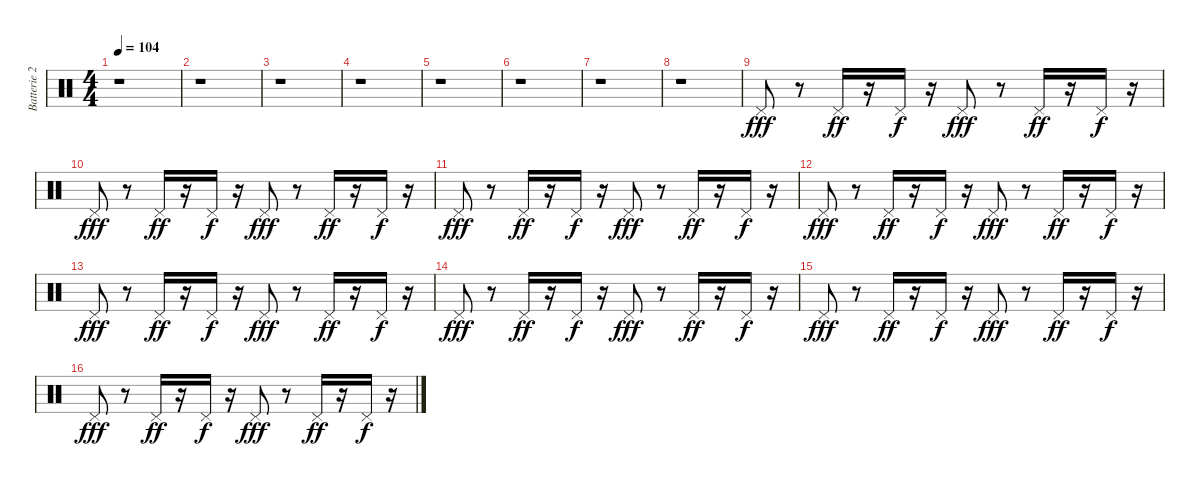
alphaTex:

\track ("Batterie 2" "Batterie 2") {instrument percussion}
\staff {score}
\articulation defaults
\ts (4 4)
\tempo 104
\clef neutral
\ks c
r.1{dy fff} |
r.1 |
r.1 |
r.1 |
r.1 |
r.1 |
r.1 |
r.1 |
"Pedal Hi-Hat (hit)".8 r.8 "Pedal Hi-Hat (hit)".16{dy ff} r.16 "Pedal Hi-Hat (hit)".16{dy f} r.16 "Pedal Hi-Hat (hit)".8{dy fff} r.8 "Pedal Hi-Hat (hit)".16{dy ff} r.16 "Pedal Hi-Hat (hit)".16{dy f} r.16 |
"Pedal Hi-Hat (hit)".8{dy fff} r.8 "Pedal Hi-Hat (hit)".16{dy ff} r.16 "Pedal Hi-Hat (hit)".16{dy f} r.16 "Pedal Hi-Hat (hit)".8{dy fff} r.8 "Pedal Hi-Hat (hit)".16{dy ff} r.16 "Pedal Hi-Hat (hit)".16{dy f} r.16 |
"Pedal Hi-Hat (hit)".8{dy fff} r.8 "Pedal Hi-Hat (hit)".16{dy ff} r.16 "Pedal Hi-Hat (hit)".16{dy f} r.16 "Pedal Hi-Hat (hit)".8{dy fff} r.8 "Pedal Hi-Hat (hit)".16{dy ff} r.16 "Pedal Hi-Hat (hit)".16{dy f} r.16 |
"Pedal Hi-Hat (hit)".8{dy fff} r.8 "Pedal Hi-Hat (hit)".16{dy ff} r.16 "Pedal Hi-Hat (hit)".16{dy f} r.16 "Pedal Hi-Hat (hit)".8{dy fff} r.8 "Pedal Hi-Hat (hit)".16{dy ff} r.16 "Pedal Hi-Hat (hit)".16{dy f} r.16 |
"Pedal Hi-Hat (hit)".8{dy fff} r.8 "Pedal Hi-Hat (hit)".16{dy ff} r.16 "Pedal Hi-Hat (hit)".16{dy f} r.16 "Pedal Hi-Hat (hit)".8{dy fff} r.8 "Pedal Hi-Hat (hit)".16{dy ff} r.16 "Pedal Hi-Hat (hit)".16{dy f} r.16 |
"Pedal Hi-Hat (hit)".8{dy fff} r.8 "Pedal Hi-Hat (hit)".16{dy ff} r.16 "Pedal Hi-Hat (hit)".16{dy f} r.16 "Pedal Hi-Hat (hit)".8{dy fff} r.8 "Pedal Hi-Hat (hit)".16{dy ff} r.16 "Pedal Hi-Hat (hit)".16{dy f} r.16 |
"Pedal Hi-Hat (hit)".8{dy fff} r.8 "Pedal Hi-Hat (hit)".16{dy ff} r.16 "Pedal Hi-Hat (hit)".16{dy f} r.16 "Pedal Hi-Hat (hit)".8{dy fff} r.8 "Pedal Hi-Hat (hit)".16{dy ff} r.16 "Pedal Hi-Hat (hit)".16{dy f} r.16 |
"Pedal Hi-Hat (hit)".8{dy fff} r.8 "Pedal Hi-Hat (hit)".16{dy ff} r.16 "Pedal Hi-Hat (hit)".16{dy f} r.16 "Pedal Hi-Hat (hit)".8{dy fff} r.8 "Pedal Hi-Hat (hit)".16{dy ff} r.16 "Pedal Hi-Hat (hit)".16{dy f} r.16
